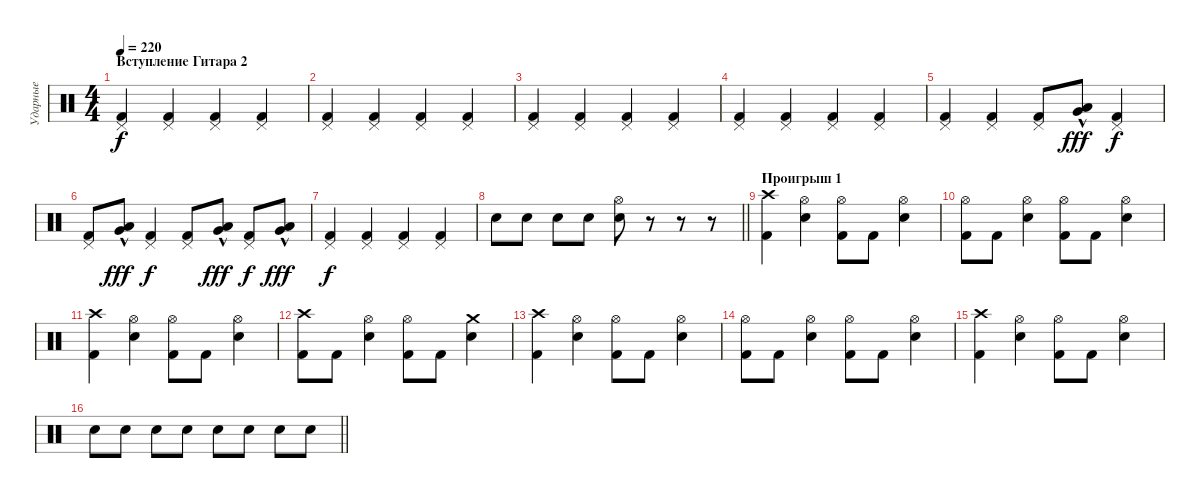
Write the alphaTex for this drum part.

\track ("Ударные" "Ударные") {instrument percussion}
\staff {score}
\articulation defaults
\ts (4 4)
\section ("" "Вступление Гитара 2")
\tempo 220
\clef neutral
\ks c
("Kick (hit) 2" "Pedal Hi-Hat (hit)").4{dy f} ("Kick (hit) 2" "Pedal Hi-Hat (hit)").4 ("Kick (hit) 2" "Pedal Hi-Hat (hit)").4 ("Kick (hit) 2" "Pedal Hi-Hat (hit)").4 |
("Kick (hit) 2" "Pedal Hi-Hat (hit)").4 ("Kick (hit) 2" "Pedal Hi-Hat (hit)").4 ("Kick (hit) 2" "Pedal Hi-Hat (hit)").4 ("Kick (hit) 2" "Pedal Hi-Hat (hit)").4 |
("Kick (hit) 2" "Pedal Hi-Hat (hit)").4 ("Kick (hit) 2" "Pedal Hi-Hat (hit)").4 ("Kick (hit) 2" "Pedal Hi-Hat (hit)").4 ("Kick (hit) 2" "Pedal Hi-Hat (hit)").4 |
("Kick (hit) 2" "Pedal Hi-Hat (hit)").4 ("Kick (hit) 2" "Pedal Hi-Hat (hit)").4 ("Kick (hit) 2" "Pedal Hi-Hat (hit)").4 ("Kick (hit) 2" "Pedal Hi-Hat (hit)").4 |
("Kick (hit) 2" "Pedal Hi-Hat (hit)").4 ("Kick (hit) 2" "Pedal Hi-Hat (hit)").4 ("Kick (hit) 2" "Pedal Hi-Hat (hit)").8 ("Low Tom (hit)" "Very Low Tom (hit)"{hac}).8{dy fff} ("Kick (hit) 2" "Pedal Hi-Hat (hit)").4{dy f} |
("Kick (hit) 2" "Pedal Hi-Hat (hit)").8 ("Low Tom (hit)" "Very Low Tom (hit)"{hac}).8{dy fff} ("Kick (hit) 2" "Pedal Hi-Hat (hit)").4{dy f} ("Kick (hit) 2" "Pedal Hi-Hat (hit)").8 ("Low Tom (hit)" "Very Low Tom (hit)"{hac}).8{dy fff} ("Kick (hit) 2" "Pedal Hi-Hat (hit)").8{dy f} ("Low Tom (hit)" "Very Low Tom (hit)"{hac}).8{dy fff} |
("Kick (hit) 2" "Pedal Hi-Hat (hit)").4{dy f} ("Kick (hit) 2" "Pedal Hi-Hat (hit)").4 ("Kick (hit) 2" "Pedal Hi-Hat (hit)").4 ("Kick (hit) 2" "Pedal Hi-Hat (hit)").4 |
\barLineRight lightlight "Snare (hit) 2".8 "Snare (hit) 2".8 "Snare (hit) 2".8 "Snare (hit) 2".8
("Hi-Hat (open)" "Snare (hit) 2").8 r.8 r.8 r.8 |
\section ("" "Проигрыш 1")
("Crash high (hit)" "Kick (hit) 2").4 ("Hi-Hat (open)" "Snare (hit) 2").4 ("Hi-Hat (open)" "Kick (hit) 2").8 "Kick (hit) 2".8 ("Hi-Hat (open)" "Snare (hit) 2").4 |
("Hi-Hat (open)" "Kick (hit) 2").8 "Kick (hit) 2".8 ("Hi-Hat (open)" "Snare (hit) 2").4 ("Hi-Hat (open)" "Kick (hit) 2").8 "Kick (hit) 2".8 ("Hi-Hat (open)" "Snare (hit) 2").4 |
("Crash high (hit)" "Kick (hit) 2").4 ("Hi-Hat (open)" "Snare (hit) 2").4 ("Hi-Hat (open)" "Kick (hit) 2").8 "Kick (hit) 2".8 ("Hi-Hat (open)" "Snare (hit) 2").4 |
("Crash high (hit)" "Kick (hit) 2").8 "Kick (hit) 2".8 ("Hi-Hat (open)" "Snare (hit) 2").4 ("Hi-Hat (open)" "Kick (hit) 2").8 "Kick (hit) 2".8 ("Crash medium (hit)" "Snare (hit) 2").4 |
("Crash high (hit)" "Kick (hit) 2").4 ("Hi-Hat (open)" "Snare (hit) 2").4 ("Hi-Hat (open)" "Kick (hit) 2").8 "Kick (hit) 2".8 ("Hi-Hat (open)" "Snare (hit) 2").4 |
("Hi-Hat (open)" "Kick (hit) 2").8 "Kick (hit) 2".8 ("Hi-Hat (open)" "Snare (hit) 2").4 ("Hi-Hat (open)" "Kick (hit) 2").8 "Kick (hit) 2".8 ("Hi-Hat (open)" "Snare (hit) 2").4 |
("Crash high (hit)" "Kick (hit) 2").4 ("Hi-Hat (open)" "Snare (hit) 2").4 ("Hi-Hat (open)" "Kick (hit) 2").8 "Kick (hit) 2".8 ("Hi-Hat (open)" "Snare (hit) 2").4 |
\barLineRight lightlight "Snare (hit) 2".8 "Snare (hit) 2".8 "Snare (hit) 2".8 "Snare (hit) 2".8 "Snare (hit) 2".8 "Snare (hit) 2".8 "Snare (hit) 2".8 "Snare (hit) 2".8
